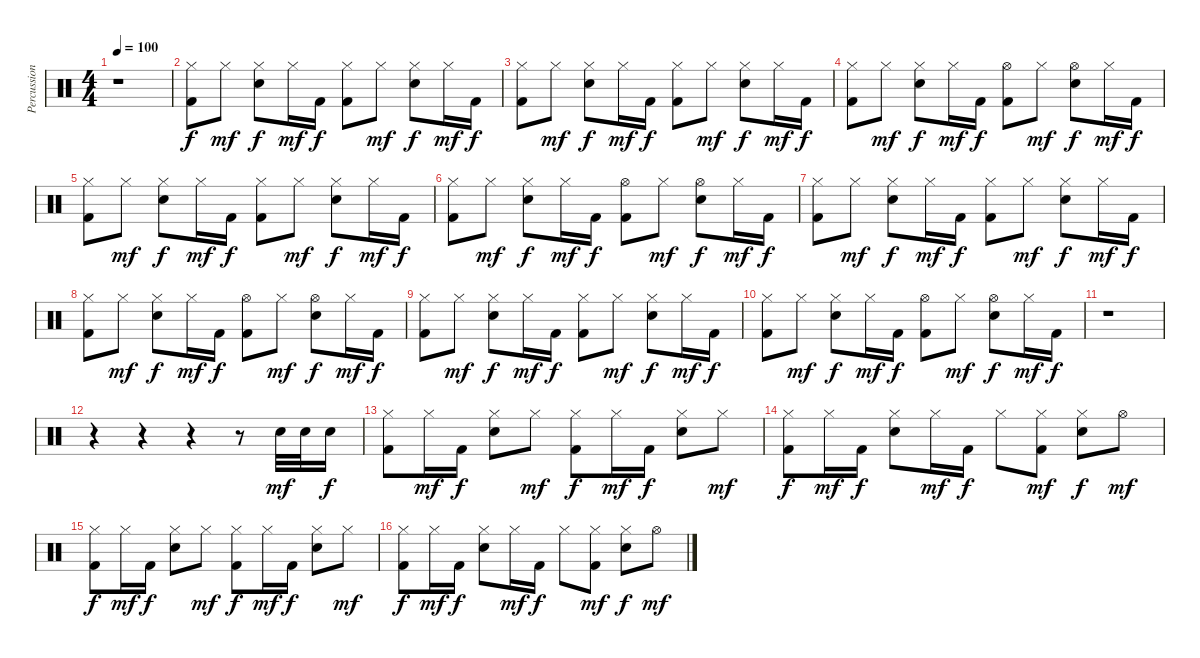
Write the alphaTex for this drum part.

\track ("Percussioni" "Percussion") {instrument percussion}
\staff {score}
\articulation defaults
\ts (4 4)
\tempo 100
\clef neutral
\ks c
r.1{dy f} |
("Hi-Hat (closed)" "Kick (hit) 2").8 "Hi-Hat (closed)".8{dy mf} ("Hi-Hat (closed)" "Snare (hit) 2").8{dy f} "Hi-Hat (closed)".16{dy mf} "Kick (hit) 2".16{dy f} ("Hi-Hat (closed)" "Kick (hit) 2").8 "Hi-Hat (closed)".8{dy mf} ("Hi-Hat (closed)" "Snare (hit) 2").8{dy f} "Hi-Hat (closed)".16{dy mf} "Kick (hit) 2".16{dy f} |
("Hi-Hat (closed)" "Kick (hit) 2").8 "Hi-Hat (closed)".8{dy mf} ("Hi-Hat (closed)" "Snare (hit) 2").8{dy f} "Hi-Hat (closed)".16{dy mf} "Kick (hit) 2".16{dy f} ("Hi-Hat (closed)" "Kick (hit) 2").8 "Hi-Hat (closed)".8{dy mf} ("Hi-Hat (closed)" "Snare (hit) 2").8{dy f} "Hi-Hat (closed)".16{dy mf} "Kick (hit) 2".16{dy f} |
("Hi-Hat (closed)" "Kick (hit) 2").8 "Hi-Hat (closed)".8{dy mf} ("Hi-Hat (closed)" "Snare (hit) 2").8{dy f} "Hi-Hat (closed)".16{dy mf} "Kick (hit) 2".16{dy f} ("Hi-Hat (open)" "Kick (hit) 2").8 "Hi-Hat (closed)".8{dy mf} ("Hi-Hat (open)" "Snare (hit) 2").8{dy f} "Hi-Hat (closed)".16{dy mf} "Kick (hit) 2".16{dy f} |
("Hi-Hat (closed)" "Kick (hit) 2").8 "Hi-Hat (closed)".8{dy mf} ("Hi-Hat (closed)" "Snare (hit) 2").8{dy f} "Hi-Hat (closed)".16{dy mf} "Kick (hit) 2".16{dy f} ("Hi-Hat (closed)" "Kick (hit) 2").8 "Hi-Hat (closed)".8{dy mf} ("Hi-Hat (closed)" "Snare (hit) 2").8{dy f} "Hi-Hat (closed)".16{dy mf} "Kick (hit) 2".16{dy f} |
("Hi-Hat (closed)" "Kick (hit) 2").8 "Hi-Hat (closed)".8{dy mf} ("Hi-Hat (closed)" "Snare (hit) 2").8{dy f} "Hi-Hat (closed)".16{dy mf} "Kick (hit) 2".16{dy f} ("Hi-Hat (open)" "Kick (hit) 2").8 "Hi-Hat (closed)".8{dy mf} ("Hi-Hat (open)" "Snare (hit) 2").8{dy f} "Hi-Hat (closed)".16{dy mf} "Kick (hit) 2".16{dy f} |
("Hi-Hat (closed)" "Kick (hit) 2").8 "Hi-Hat (closed)".8{dy mf} ("Hi-Hat (closed)" "Snare (hit) 2").8{dy f} "Hi-Hat (closed)".16{dy mf} "Kick (hit) 2".16{dy f} ("Hi-Hat (closed)" "Kick (hit) 2").8 "Hi-Hat (closed)".8{dy mf} ("Hi-Hat (closed)" "Snare (hit) 2").8{dy f} "Hi-Hat (closed)".16{dy mf} "Kick (hit) 2".16{dy f} |
("Hi-Hat (closed)" "Kick (hit) 2").8 "Hi-Hat (closed)".8{dy mf} ("Hi-Hat (closed)" "Snare (hit) 2").8{dy f} "Hi-Hat (closed)".16{dy mf} "Kick (hit) 2".16{dy f} ("Hi-Hat (open)" "Kick (hit) 2").8 "Hi-Hat (closed)".8{dy mf} ("Hi-Hat (open)" "Snare (hit) 2").8{dy f} "Hi-Hat (closed)".16{dy mf} "Kick (hit) 2".16{dy f} |
("Hi-Hat (closed)" "Kick (hit) 2").8 "Hi-Hat (closed)".8{dy mf} ("Hi-Hat (closed)" "Snare (hit) 2").8{dy f} "Hi-Hat (closed)".16{dy mf} "Kick (hit) 2".16{dy f} ("Hi-Hat (closed)" "Kick (hit) 2").8 "Hi-Hat (closed)".8{dy mf} ("Hi-Hat (closed)" "Snare (hit) 2").8{dy f} "Hi-Hat (closed)".16{dy mf} "Kick (hit) 2".16{dy f} |
("Hi-Hat (closed)" "Kick (hit) 2").8 "Hi-Hat (closed)".8{dy mf} ("Hi-Hat (closed)" "Snare (hit) 2").8{dy f} "Hi-Hat (closed)".16{dy mf} "Kick (hit) 2".16{dy f} ("Hi-Hat (open)" "Kick (hit) 2").8 "Hi-Hat (closed)".8{dy mf} ("Hi-Hat (open)" "Snare (hit) 2").8{dy f} "Hi-Hat (closed)".16{dy mf} "Kick (hit) 2".16{dy f} |
r.1 |
r.4 r.4 r.4 r.8 "Snare (hit) 2".32{dy mf} "Snare (hit) 2".32 "Snare (hit) 2".16{dy f} |
("Hi-Hat (closed)" "Kick (hit) 2").8 "Hi-Hat (closed)".16{dy mf} "Kick (hit) 2".16{dy f} ("Hi-Hat (closed)" "Snare (hit) 2").8 "Hi-Hat (closed)".8{dy mf} ("Hi-Hat (closed)" "Kick (hit) 2").8{dy f} "Hi-Hat (closed)".16{dy mf} "Kick (hit) 2".16{dy f} ("Hi-Hat (closed)" "Snare (hit) 2").8 "Hi-Hat (closed)".8{dy mf} |
("Hi-Hat (closed)" "Kick (hit) 2").8{dy f} "Hi-Hat (closed)".16{dy mf} "Kick (hit) 2".16{dy f} ("Hi-Hat (closed)" "Snare (hit) 2").8 "Hi-Hat (closed)".16{dy mf} "Kick (hit) 2".16{dy f} "Hi-Hat (closed)".8 ("Hi-Hat (closed)" "Kick (hit) 2").8{dy mf} ("Hi-Hat (closed)" "Snare (hit) 2").8{dy f} "Hi-Hat (open)".8{dy mf} |
("Hi-Hat (closed)" "Kick (hit) 2").8{dy f} "Hi-Hat (closed)".16{dy mf} "Kick (hit) 2".16{dy f} ("Hi-Hat (closed)" "Snare (hit) 2").8 "Hi-Hat (closed)".8{dy mf} ("Hi-Hat (closed)" "Kick (hit) 2").8{dy f} "Hi-Hat (closed)".16{dy mf} "Kick (hit) 2".16{dy f} ("Hi-Hat (closed)" "Snare (hit) 2").8 "Hi-Hat (closed)".8{dy mf} |
("Hi-Hat (closed)" "Kick (hit) 2").8{dy f} "Hi-Hat (closed)".16{dy mf} "Kick (hit) 2".16{dy f} ("Hi-Hat (closed)" "Snare (hit) 2").8 "Hi-Hat (closed)".16{dy mf} "Kick (hit) 2".16{dy f} "Hi-Hat (closed)".8 ("Hi-Hat (closed)" "Kick (hit) 2").8{dy mf} ("Hi-Hat (closed)" "Snare (hit) 2").8{dy f} "Hi-Hat (open)".8{dy mf}
